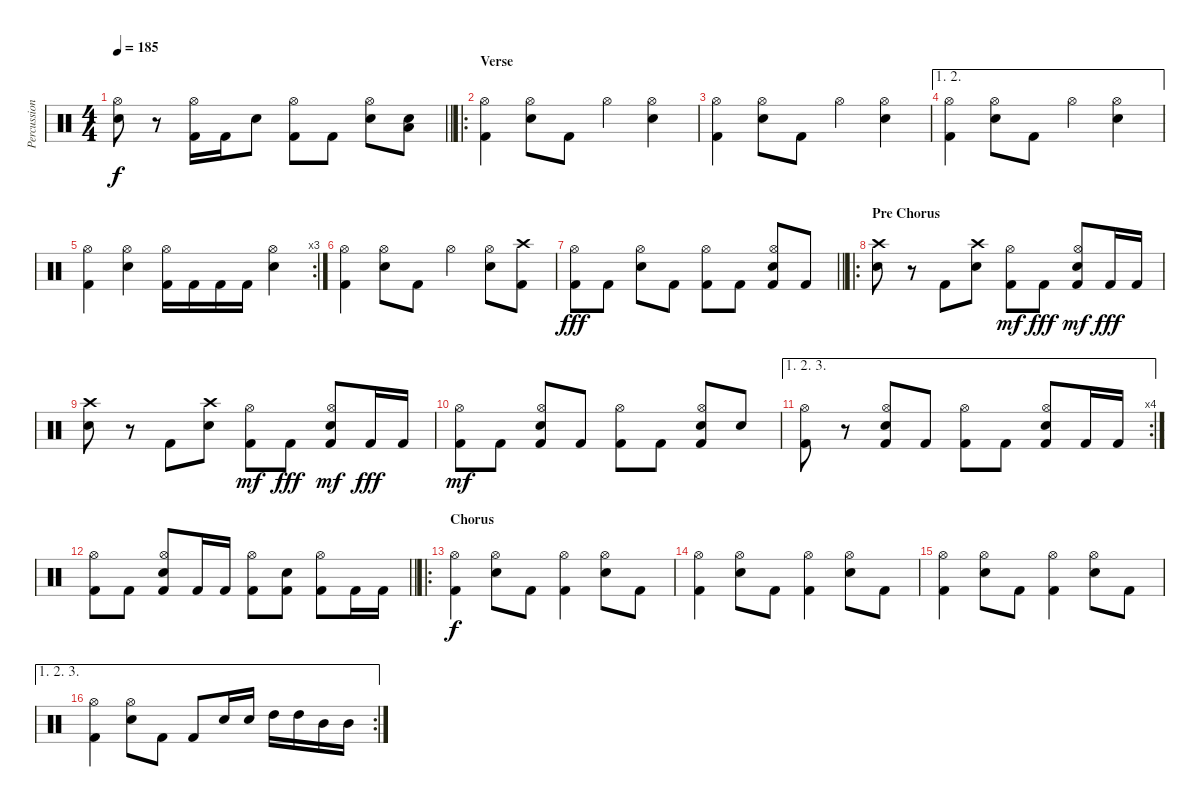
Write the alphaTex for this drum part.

\track ("Percussioni" "Percussion") {instrument percussion}
\staff {score}
\articulation defaults
\ts (4 4)
\tempo 185
\clef neutral
\barLineRight lightlight
\ks c
("Snare (hit) 2" "Hi-Hat (open)").8{dy f} r.8 ("Kick (hit) 2" "Hi-Hat (open)").16 "Kick (hit) 2".16 "Snare (hit) 2".8 ("Kick (hit) 2" "Hi-Hat (open)").8 "Kick (hit) 2".8 ("Snare (hit) 2" "Hi-Hat (open)").8 ("Low Tom (hit)" "Snare (hit) 2").8 |
\ro
\section ("" "Verse")
("Kick (hit) 2" "Hi-Hat (open)").4 ("Snare (hit) 2" "Hi-Hat (open)").8 "Kick (hit) 2".8 "Hi-Hat (open)".4 ("Snare (hit) 2" "Hi-Hat (open)").4 |
("Kick (hit) 2" "Hi-Hat (open)").4 ("Snare (hit) 2" "Hi-Hat (open)").8 "Kick (hit) 2".8 "Hi-Hat (open)".4 ("Snare (hit) 2" "Hi-Hat (open)").4 |
\ae (1 2)
("Kick (hit) 2" "Hi-Hat (open)").4 ("Snare (hit) 2" "Hi-Hat (open)").8 "Kick (hit) 2".8 "Hi-Hat (open)".4 ("Snare (hit) 2" "Hi-Hat (open)").4 |
\rc 3
("Kick (hit) 2" "Hi-Hat (open)").4 ("Snare (hit) 2" "Hi-Hat (open)").4 ("Kick (hit) 2" "Hi-Hat (open)").16 "Kick (hit) 2".16 "Kick (hit) 2".16 "Kick (hit) 2".16 ("Snare (hit) 2" "Hi-Hat (open)").4 |
("Kick (hit) 2" "Hi-Hat (open)").4 ("Snare (hit) 2" "Hi-Hat (open)").8 "Kick (hit) 2".8 "Hi-Hat (open)".4 ("Snare (hit) 2" "Hi-Hat (open)").8 ("Kick (hit) 2" "Crash high (hit)").8 |
\barLineRight lightlight
("Kick (hit) 2" "Hi-Hat (open)").8{dy fff} "Kick (hit) 2".8 ("Snare (hit) 2" "Hi-Hat (open)").8 "Kick (hit) 2".8 ("Kick (hit) 2" "Hi-Hat (open)").8 "Kick (hit) 2".8 ("Snare (hit) 2" "Hi-Hat (open)" "Kick (hit) 2").8 "Kick (hit) 2".8 |
\ro
\section ("" "Pre Chorus")
("Snare (hit) 2" "Crash high (hit)").8 r.8 "Kick (hit) 2".8 ("Snare (hit) 2" "Crash high (hit)").8 ("Kick (hit) 2" "Hi-Hat (open)").8{dy mf} "Kick (hit) 2".8{dy fff} ("Kick (hit) 2" "Snare (hit) 2" "Hi-Hat (open)").8{dy mf} "Kick (hit) 2".16{dy fff} "Kick (hit) 2".16 |
("Snare (hit) 2" "Crash high (hit)").8 r.8 "Kick (hit) 2".8 ("Snare (hit) 2" "Crash high (hit)").8 ("Kick (hit) 2" "Hi-Hat (open)").8{dy mf} "Kick (hit) 2".8{dy fff} ("Kick (hit) 2" "Snare (hit) 2" "Hi-Hat (open)").8{dy mf} "Kick (hit) 2".16{dy fff} "Kick (hit) 2".16 |
("Kick (hit) 2" "Hi-Hat (open)").8{dy mf} "Kick (hit) 2".8 ("Kick (hit) 2" "Snare (hit) 2" "Hi-Hat (open)").8 "Kick (hit) 2".8 ("Kick (hit) 2" "Hi-Hat (open)").8 "Kick (hit) 2".8 ("Kick (hit) 2" "Snare (hit) 2" "Hi-Hat (open)").8 "Snare (hit) 2".8 |
\ae (1 2 3)
\rc 4
("Kick (hit) 2" "Hi-Hat (open)").8 r.8 ("Kick (hit) 2" "Snare (hit) 2" "Hi-Hat (open)").8 "Kick (hit) 2".8 ("Kick (hit) 2" "Hi-Hat (open)").8 "Kick (hit) 2".8 ("Kick (hit) 2" "Snare (hit) 2" "Hi-Hat (open)").8 "Kick (hit) 2".16 "Kick (hit) 2".16 |
\barLineRight lightlight
("Kick (hit) 2" "Hi-Hat (open)").8 "Kick (hit) 2".8 ("Kick (hit) 2" "Snare (hit) 2" "Hi-Hat (open)").8 "Kick (hit) 2".16 "Kick (hit) 2".16 ("Kick (hit) 2" "Hi-Hat (open)").8 ("Kick (hit) 2" "Snare (hit) 2").8 ("Kick (hit) 2" "Hi-Hat (open)").8 "Kick (hit) 2".16 "Kick (hit) 2".16 |
\ro
\section ("" "Chorus")
("Kick (hit) 2" "Hi-Hat (open)").4{dy f} ("Snare (hit) 2" "Hi-Hat (open)").8 "Kick (hit) 2".8 ("Kick (hit) 2" "Hi-Hat (open)").4 ("Snare (hit) 2" "Hi-Hat (open)").8 "Kick (hit) 2".8 |
("Kick (hit) 2" "Hi-Hat (open)").4 ("Snare (hit) 2" "Hi-Hat (open)").8 "Kick (hit) 2".8 ("Kick (hit) 2" "Hi-Hat (open)").4 ("Snare (hit) 2" "Hi-Hat (open)").8 "Kick (hit) 2".8 |
("Kick (hit) 2" "Hi-Hat (open)").4 ("Snare (hit) 2" "Hi-Hat (open)").8 "Kick (hit) 2".8 ("Kick (hit) 2" "Hi-Hat (open)").4 ("Snare (hit) 2" "Hi-Hat (open)").8 "Kick (hit) 2".8 |
\ae (1 2 3)
\rc 2
("Kick (hit) 2" "Hi-Hat (open)").4 ("Snare (hit) 2" "Hi-Hat (open)").8 "Kick (hit) 2".8 "Kick (hit) 2".8 "Snare (hit) 2".16 "Snare (hit) 2".16 "High Tom (hit)".16 "High Tom (hit)".16 "Mid Tom (hit)".16 "Mid Tom (hit)".16
